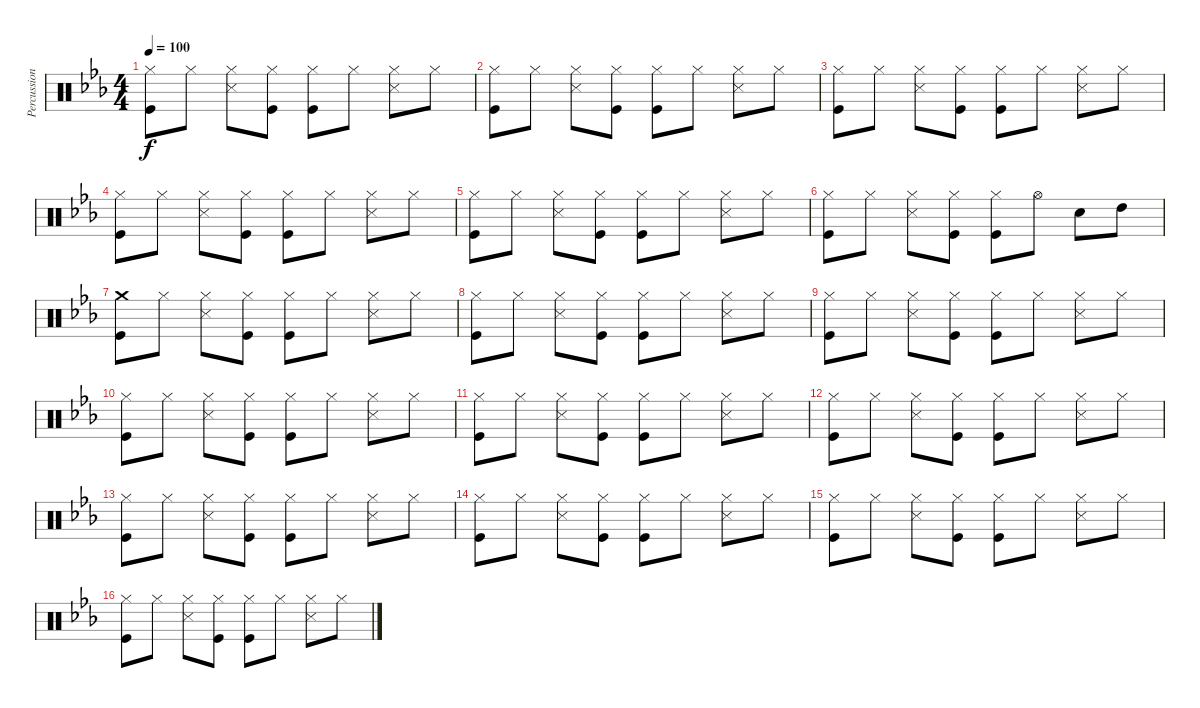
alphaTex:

\track ("Percussion" "Percussion") {instrument percussion}
\staff {score}
\articulation defaults
\ts (4 4)
\tempo 100
\clef neutral
\ks eb
("Hi-Hat (closed)" "Kick (hit)").8{dy f} "Hi-Hat (closed)".8 ("Hi-Hat (closed)" "Snare (side stick) 3").8 ("Hi-Hat (closed)" "Kick (hit)").8 ("Hi-Hat (closed)" "Kick (hit)").8 "Hi-Hat (closed)".8 ("Hi-Hat (closed)" "Snare (side stick) 3").8 "Hi-Hat (closed)".8 |
("Hi-Hat (closed)" "Kick (hit)").8 "Hi-Hat (closed)".8 ("Hi-Hat (closed)" "Snare (side stick) 3").8 ("Hi-Hat (closed)" "Kick (hit)").8 ("Hi-Hat (closed)" "Kick (hit)").8 "Hi-Hat (closed)".8 ("Hi-Hat (closed)" "Snare (side stick) 3").8 "Hi-Hat (closed)".8 |
("Hi-Hat (closed)" "Kick (hit)").8 "Hi-Hat (closed)".8 ("Hi-Hat (closed)" "Snare (side stick) 3").8 ("Hi-Hat (closed)" "Kick (hit)").8 ("Hi-Hat (closed)" "Kick (hit)").8 "Hi-Hat (closed)".8 ("Hi-Hat (closed)" "Snare (side stick) 3").8 "Hi-Hat (closed)".8 |
("Hi-Hat (closed)" "Kick (hit)").8 "Hi-Hat (closed)".8 ("Hi-Hat (closed)" "Snare (side stick) 3").8 ("Hi-Hat (closed)" "Kick (hit)").8 ("Hi-Hat (closed)" "Kick (hit)").8 "Hi-Hat (closed)".8 ("Hi-Hat (closed)" "Snare (side stick) 3").8 "Hi-Hat (closed)".8 |
("Hi-Hat (closed)" "Kick (hit)").8 "Hi-Hat (closed)".8 ("Hi-Hat (closed)" "Snare (side stick) 3").8 ("Hi-Hat (closed)" "Kick (hit)").8 ("Hi-Hat (closed)" "Kick (hit)").8 "Hi-Hat (closed)".8 ("Hi-Hat (closed)" "Snare (side stick) 3").8 "Hi-Hat (closed)".8 |
("Hi-Hat (closed)" "Kick (hit)").8 "Hi-Hat (closed)".8 ("Hi-Hat (closed)" "Snare (side stick) 3").8 ("Hi-Hat (closed)" "Kick (hit)").8 ("Hi-Hat (closed)" "Kick (hit)").8 "Hi-Hat (open)".8 "Snare (hit) 2".8 "High Tom (hit)".8 |
("Crash medium (hit)" "Kick (hit)").8 "Hi-Hat (closed)".8 ("Hi-Hat (closed)" "Snare (side stick) 3").8 ("Hi-Hat (closed)" "Kick (hit)").8 ("Hi-Hat (closed)" "Kick (hit)").8 "Hi-Hat (closed)".8 ("Hi-Hat (closed)" "Snare (side stick) 3").8 "Hi-Hat (closed)".8 |
("Hi-Hat (closed)" "Kick (hit)").8 "Hi-Hat (closed)".8 ("Hi-Hat (closed)" "Snare (side stick) 3").8 ("Hi-Hat (closed)" "Kick (hit)").8 ("Hi-Hat (closed)" "Kick (hit)").8 "Hi-Hat (closed)".8 ("Hi-Hat (closed)" "Snare (side stick) 3").8 "Hi-Hat (closed)".8 |
("Hi-Hat (closed)" "Kick (hit)").8 "Hi-Hat (closed)".8 ("Hi-Hat (closed)" "Snare (side stick) 3").8 ("Hi-Hat (closed)" "Kick (hit)").8 ("Hi-Hat (closed)" "Kick (hit)").8 "Hi-Hat (closed)".8 ("Hi-Hat (closed)" "Snare (side stick) 3").8 "Hi-Hat (closed)".8 |
("Hi-Hat (closed)" "Kick (hit)").8 "Hi-Hat (closed)".8 ("Hi-Hat (closed)" "Snare (side stick) 3").8 ("Hi-Hat (closed)" "Kick (hit)").8 ("Hi-Hat (closed)" "Kick (hit)").8 "Hi-Hat (closed)".8 ("Hi-Hat (closed)" "Snare (side stick) 3").8 "Hi-Hat (closed)".8 |
("Hi-Hat (closed)" "Kick (hit)").8 "Hi-Hat (closed)".8 ("Hi-Hat (closed)" "Snare (side stick) 3").8 ("Hi-Hat (closed)" "Kick (hit)").8 ("Hi-Hat (closed)" "Kick (hit)").8 "Hi-Hat (closed)".8 ("Hi-Hat (closed)" "Snare (side stick) 3").8 "Hi-Hat (closed)".8 |
("Hi-Hat (closed)" "Kick (hit)").8 "Hi-Hat (closed)".8 ("Hi-Hat (closed)" "Snare (side stick) 3").8 ("Hi-Hat (closed)" "Kick (hit)").8 ("Hi-Hat (closed)" "Kick (hit)").8 "Hi-Hat (closed)".8 ("Hi-Hat (closed)" "Snare (side stick) 3").8 "Hi-Hat (closed)".8 |
("Hi-Hat (closed)" "Kick (hit)").8 "Hi-Hat (closed)".8 ("Hi-Hat (closed)" "Snare (side stick) 3").8 ("Hi-Hat (closed)" "Kick (hit)").8 ("Hi-Hat (closed)" "Kick (hit)").8 "Hi-Hat (closed)".8 ("Hi-Hat (closed)" "Snare (side stick) 3").8 "Hi-Hat (closed)".8 |
("Hi-Hat (closed)" "Kick (hit)").8 "Hi-Hat (closed)".8 ("Hi-Hat (closed)" "Snare (side stick) 3").8 ("Hi-Hat (closed)" "Kick (hit)").8 ("Hi-Hat (closed)" "Kick (hit)").8 "Hi-Hat (closed)".8 ("Hi-Hat (closed)" "Snare (side stick) 3").8 "Hi-Hat (closed)".8 |
("Hi-Hat (closed)" "Kick (hit)").8 "Hi-Hat (closed)".8 ("Hi-Hat (closed)" "Snare (side stick) 3").8 ("Hi-Hat (closed)" "Kick (hit)").8 ("Hi-Hat (closed)" "Kick (hit)").8 "Hi-Hat (closed)".8 ("Hi-Hat (closed)" "Snare (side stick) 3").8 "Hi-Hat (closed)".8 |
("Hi-Hat (closed)" "Kick (hit)").8 "Hi-Hat (closed)".8 ("Hi-Hat (closed)" "Snare (side stick) 3").8 ("Hi-Hat (closed)" "Kick (hit)").8 ("Hi-Hat (closed)" "Kick (hit)").8 "Hi-Hat (closed)".8 ("Hi-Hat (closed)" "Snare (side stick) 3").8 "Hi-Hat (closed)".8
